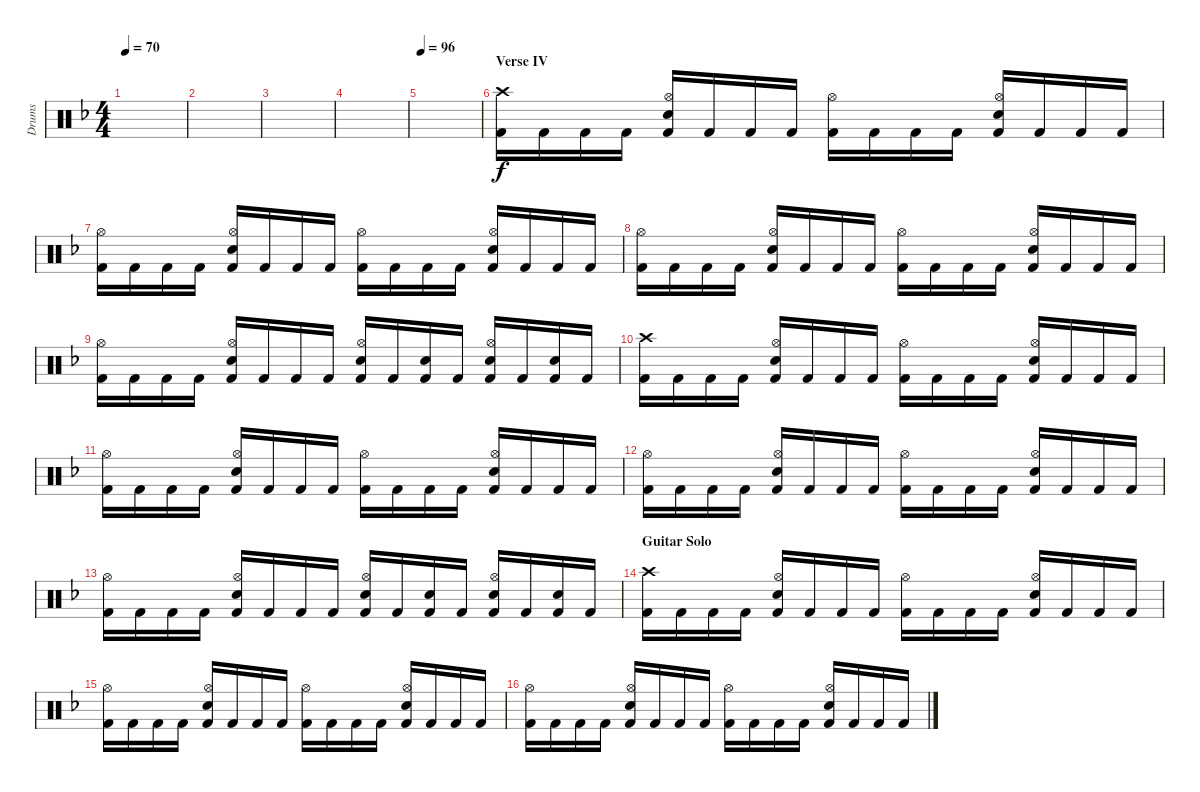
\track ("Drums" "Drums") {instrument percussion}
\staff {score}
\articulation defaults
\ts (4 4)
\tempo 70
\clef neutral
\ks dminor
|
|
|
|
\tempo 96
|
\section ("" "Verse IV")
("Crash high (hit)" "Kick (hit) 2").16 "Kick (hit) 2".16 "Kick (hit) 2".16 "Kick (hit) 2".16 ("Hi-Hat (open)" "Snare (hit) 2" "Kick (hit) 2").16 "Kick (hit) 2".16 "Kick (hit) 2".16 "Kick (hit) 2".16 ("Hi-Hat (open)" "Kick (hit) 2").16 "Kick (hit) 2".16 "Kick (hit) 2".16 "Kick (hit) 2".16 ("Hi-Hat (open)" "Snare (hit) 2" "Kick (hit) 2").16 "Kick (hit) 2".16 "Kick (hit) 2".16 "Kick (hit) 2".16 |
("Hi-Hat (open)" "Kick (hit) 2").16 "Kick (hit) 2".16 "Kick (hit) 2".16 "Kick (hit) 2".16 ("Hi-Hat (open)" "Snare (hit) 2" "Kick (hit) 2").16 "Kick (hit) 2".16 "Kick (hit) 2".16 "Kick (hit) 2".16 ("Hi-Hat (open)" "Kick (hit) 2").16 "Kick (hit) 2".16 "Kick (hit) 2".16 "Kick (hit) 2".16 ("Hi-Hat (open)" "Snare (hit) 2" "Kick (hit) 2").16 "Kick (hit) 2".16 "Kick (hit) 2".16 "Kick (hit) 2".16 |
("Hi-Hat (open)" "Kick (hit) 2").16 "Kick (hit) 2".16 "Kick (hit) 2".16 "Kick (hit) 2".16 ("Hi-Hat (open)" "Snare (hit) 2" "Kick (hit) 2").16 "Kick (hit) 2".16 "Kick (hit) 2".16 "Kick (hit) 2".16 ("Hi-Hat (open)" "Kick (hit) 2").16 "Kick (hit) 2".16 "Kick (hit) 2".16 "Kick (hit) 2".16 ("Hi-Hat (open)" "Snare (hit) 2" "Kick (hit) 2").16 "Kick (hit) 2".16 "Kick (hit) 2".16 "Kick (hit) 2".16 |
("Hi-Hat (open)" "Kick (hit) 2").16 "Kick (hit) 2".16 "Kick (hit) 2".16 "Kick (hit) 2".16 ("Hi-Hat (open)" "Snare (hit) 2" "Kick (hit) 2").16 "Kick (hit) 2".16 "Kick (hit) 2".16 "Kick (hit) 2".16 ("Hi-Hat (open)" "Snare (hit) 2" "Kick (hit) 2").16 "Kick (hit) 2".16 ("Snare (hit) 2" "Kick (hit) 2").16 "Kick (hit) 2".16 ("Hi-Hat (open)" "Snare (hit) 2" "Kick (hit) 2").16 "Kick (hit) 2".16 ("Snare (hit) 2" "Kick (hit) 2").16 "Kick (hit) 2".16 |
("Crash high (hit)" "Kick (hit) 2").16 "Kick (hit) 2".16 "Kick (hit) 2".16 "Kick (hit) 2".16 ("Hi-Hat (open)" "Snare (hit) 2" "Kick (hit) 2").16 "Kick (hit) 2".16 "Kick (hit) 2".16 "Kick (hit) 2".16 ("Hi-Hat (open)" "Kick (hit) 2").16 "Kick (hit) 2".16 "Kick (hit) 2".16 "Kick (hit) 2".16 ("Hi-Hat (open)" "Snare (hit) 2" "Kick (hit) 2").16 "Kick (hit) 2".16 "Kick (hit) 2".16 "Kick (hit) 2".16 |
("Hi-Hat (open)" "Kick (hit) 2").16 "Kick (hit) 2".16 "Kick (hit) 2".16 "Kick (hit) 2".16 ("Hi-Hat (open)" "Snare (hit) 2" "Kick (hit) 2").16 "Kick (hit) 2".16 "Kick (hit) 2".16 "Kick (hit) 2".16 ("Hi-Hat (open)" "Kick (hit) 2").16 "Kick (hit) 2".16 "Kick (hit) 2".16 "Kick (hit) 2".16 ("Hi-Hat (open)" "Snare (hit) 2" "Kick (hit) 2").16 "Kick (hit) 2".16 "Kick (hit) 2".16 "Kick (hit) 2".16 |
("Hi-Hat (open)" "Kick (hit) 2").16 "Kick (hit) 2".16 "Kick (hit) 2".16 "Kick (hit) 2".16 ("Hi-Hat (open)" "Snare (hit) 2" "Kick (hit) 2").16 "Kick (hit) 2".16 "Kick (hit) 2".16 "Kick (hit) 2".16 ("Hi-Hat (open)" "Kick (hit) 2").16 "Kick (hit) 2".16 "Kick (hit) 2".16 "Kick (hit) 2".16 ("Hi-Hat (open)" "Snare (hit) 2" "Kick (hit) 2").16 "Kick (hit) 2".16 "Kick (hit) 2".16 "Kick (hit) 2".16 |
("Hi-Hat (open)" "Kick (hit) 2").16 "Kick (hit) 2".16 "Kick (hit) 2".16 "Kick (hit) 2".16 ("Hi-Hat (open)" "Snare (hit) 2" "Kick (hit) 2").16 "Kick (hit) 2".16 "Kick (hit) 2".16 "Kick (hit) 2".16 ("Hi-Hat (open)" "Snare (hit) 2" "Kick (hit) 2").16 "Kick (hit) 2".16 ("Snare (hit) 2" "Kick (hit) 2").16 "Kick (hit) 2".16 ("Hi-Hat (open)" "Snare (hit) 2" "Kick (hit) 2").16 "Kick (hit) 2".16 ("Snare (hit) 2" "Kick (hit) 2").16 "Kick (hit) 2".16 |
\section ("" "Guitar Solo")
("Crash high (hit)" "Kick (hit) 2").16 "Kick (hit) 2".16 "Kick (hit) 2".16 "Kick (hit) 2".16 ("Hi-Hat (open)" "Snare (hit) 2" "Kick (hit) 2").16 "Kick (hit) 2".16 "Kick (hit) 2".16 "Kick (hit) 2".16 ("Hi-Hat (open)" "Kick (hit) 2").16 "Kick (hit) 2".16 "Kick (hit) 2".16 "Kick (hit) 2".16 ("Hi-Hat (open)" "Snare (hit) 2" "Kick (hit) 2").16 "Kick (hit) 2".16 "Kick (hit) 2".16 "Kick (hit) 2".16 |
("Hi-Hat (open)" "Kick (hit) 2").16 "Kick (hit) 2".16 "Kick (hit) 2".16 "Kick (hit) 2".16 ("Hi-Hat (open)" "Snare (hit) 2" "Kick (hit) 2").16 "Kick (hit) 2".16 "Kick (hit) 2".16 "Kick (hit) 2".16 ("Hi-Hat (open)" "Kick (hit) 2").16 "Kick (hit) 2".16 "Kick (hit) 2".16 "Kick (hit) 2".16 ("Hi-Hat (open)" "Snare (hit) 2" "Kick (hit) 2").16 "Kick (hit) 2".16 "Kick (hit) 2".16 "Kick (hit) 2".16 |
("Hi-Hat (open)" "Kick (hit) 2").16 "Kick (hit) 2".16 "Kick (hit) 2".16 "Kick (hit) 2".16 ("Hi-Hat (open)" "Snare (hit) 2" "Kick (hit) 2").16 "Kick (hit) 2".16 "Kick (hit) 2".16 "Kick (hit) 2".16 ("Hi-Hat (open)" "Kick (hit) 2").16 "Kick (hit) 2".16 "Kick (hit) 2".16 "Kick (hit) 2".16 ("Hi-Hat (open)" "Snare (hit) 2" "Kick (hit) 2").16 "Kick (hit) 2".16 "Kick (hit) 2".16 "Kick (hit) 2".16
